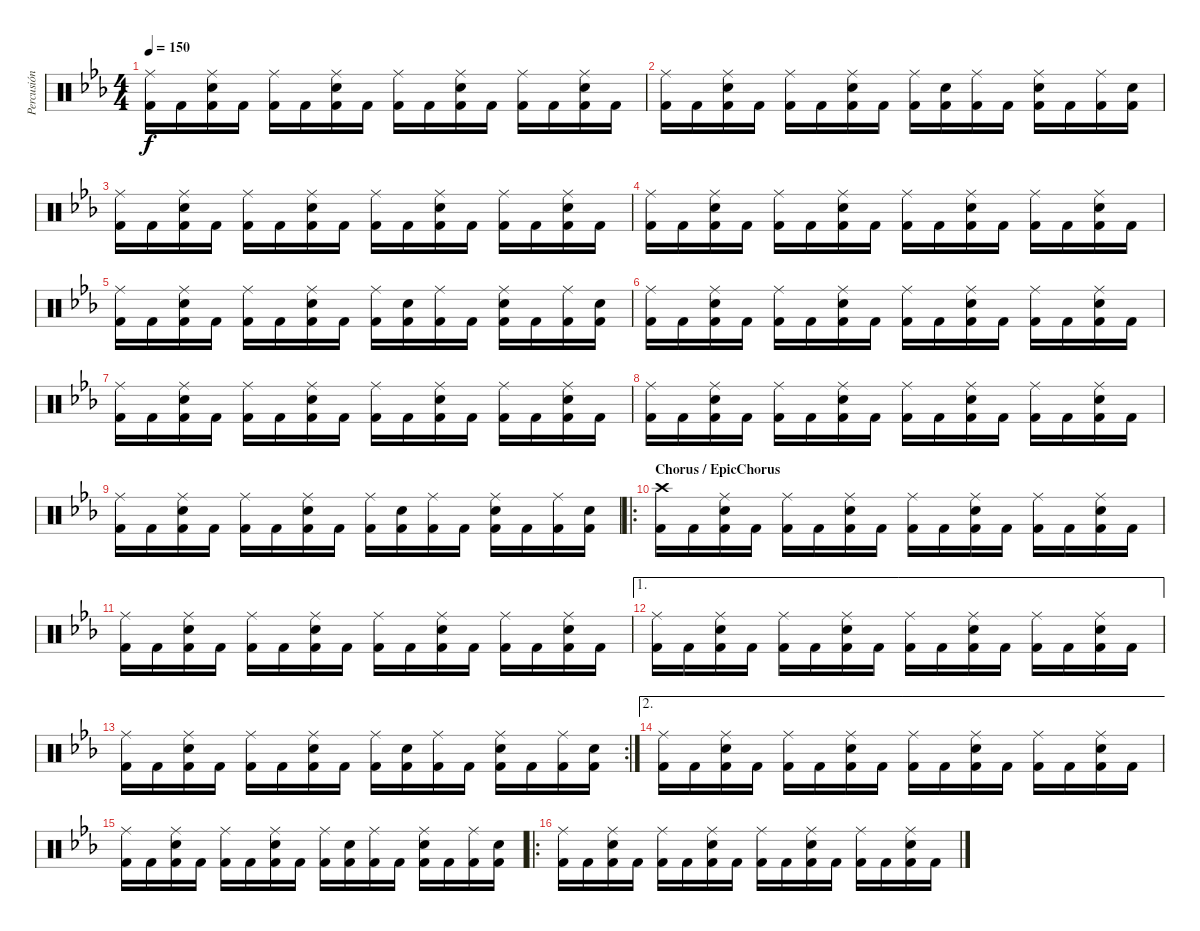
\track ("Percusión" "Percusión") {instrument percussion}
\staff {score}
\articulation defaults
\ts (4 4)
\tempo 150
\clef neutral
\ks cminor
("Ride (middle)" "Kick (hit) 2").16{dy f} "Kick (hit) 2".16 ("Ride (middle)" "Electric Snare (hit)" "Kick (hit) 2").16 "Kick (hit) 2".16 ("Ride (middle)" "Kick (hit) 2").16 "Kick (hit) 2".16 ("Ride (middle)" "Electric Snare (hit)" "Kick (hit) 2").16 "Kick (hit) 2".16 ("Ride (middle)" "Kick (hit) 2").16 "Kick (hit) 2".16 ("Ride (middle)" "Electric Snare (hit)" "Kick (hit) 2").16 "Kick (hit) 2".16 ("Ride (middle)" "Kick (hit) 2").16 "Kick (hit) 2".16 ("Ride (middle)" "Electric Snare (hit)" "Kick (hit) 2").16 "Kick (hit) 2".16 |
("Ride (middle)" "Kick (hit) 2").16 "Kick (hit) 2".16 ("Ride (middle)" "Electric Snare (hit)" "Kick (hit) 2").16 "Kick (hit) 2".16 ("Ride (middle)" "Kick (hit) 2").16 "Kick (hit) 2".16 ("Ride (middle)" "Electric Snare (hit)" "Kick (hit) 2").16 "Kick (hit) 2".16 ("Ride (middle)" "Kick (hit) 2").16 ("Electric Snare (hit)" "Kick (hit) 2").16 ("Ride (middle)" "Kick (hit) 2").16 "Kick (hit) 2".16 ("Ride (middle)" "Electric Snare (hit)" "Kick (hit) 2").16 "Kick (hit) 2".16 ("Ride (middle)" "Kick (hit) 2").16 ("Electric Snare (hit)" "Kick (hit) 2").16 |
("Ride (middle)" "Kick (hit) 2").16 "Kick (hit) 2".16 ("Ride (middle)" "Electric Snare (hit)" "Kick (hit) 2").16 "Kick (hit) 2".16 ("Ride (middle)" "Kick (hit) 2").16 "Kick (hit) 2".16 ("Ride (middle)" "Electric Snare (hit)" "Kick (hit) 2").16 "Kick (hit) 2".16 ("Ride (middle)" "Kick (hit) 2").16 "Kick (hit) 2".16 ("Ride (middle)" "Electric Snare (hit)" "Kick (hit) 2").16 "Kick (hit) 2".16 ("Ride (middle)" "Kick (hit) 2").16 "Kick (hit) 2".16 ("Ride (middle)" "Electric Snare (hit)" "Kick (hit) 2").16 "Kick (hit) 2".16 |
("Ride (middle)" "Kick (hit) 2").16 "Kick (hit) 2".16 ("Ride (middle)" "Electric Snare (hit)" "Kick (hit) 2").16 "Kick (hit) 2".16 ("Ride (middle)" "Kick (hit) 2").16 "Kick (hit) 2".16 ("Ride (middle)" "Electric Snare (hit)" "Kick (hit) 2").16 "Kick (hit) 2".16 ("Ride (middle)" "Kick (hit) 2").16 "Kick (hit) 2".16 ("Ride (middle)" "Electric Snare (hit)" "Kick (hit) 2").16 "Kick (hit) 2".16 ("Ride (middle)" "Kick (hit) 2").16 "Kick (hit) 2".16 ("Ride (middle)" "Electric Snare (hit)" "Kick (hit) 2").16 "Kick (hit) 2".16 |
("Ride (middle)" "Kick (hit) 2").16 "Kick (hit) 2".16 ("Ride (middle)" "Electric Snare (hit)" "Kick (hit) 2").16 "Kick (hit) 2".16 ("Ride (middle)" "Kick (hit) 2").16 "Kick (hit) 2".16 ("Ride (middle)" "Electric Snare (hit)" "Kick (hit) 2").16 "Kick (hit) 2".16 ("Ride (middle)" "Kick (hit) 2").16 ("Electric Snare (hit)" "Kick (hit) 2").16 ("Ride (middle)" "Kick (hit) 2").16 "Kick (hit) 2".16 ("Ride (middle)" "Electric Snare (hit)" "Kick (hit) 2").16 "Kick (hit) 2".16 ("Ride (middle)" "Kick (hit) 2").16 ("Electric Snare (hit)" "Kick (hit) 2").16 |
("Ride (middle)" "Kick (hit) 2").16 "Kick (hit) 2".16 ("Ride (middle)" "Electric Snare (hit)" "Kick (hit) 2").16 "Kick (hit) 2".16 ("Ride (middle)" "Kick (hit) 2").16 "Kick (hit) 2".16 ("Ride (middle)" "Electric Snare (hit)" "Kick (hit) 2").16 "Kick (hit) 2".16 ("Ride (middle)" "Kick (hit) 2").16 "Kick (hit) 2".16 ("Ride (middle)" "Electric Snare (hit)" "Kick (hit) 2").16 "Kick (hit) 2".16 ("Ride (middle)" "Kick (hit) 2").16 "Kick (hit) 2".16 ("Ride (middle)" "Electric Snare (hit)" "Kick (hit) 2").16 "Kick (hit) 2".16 |
("Ride (middle)" "Kick (hit) 2").16 "Kick (hit) 2".16 ("Ride (middle)" "Electric Snare (hit)" "Kick (hit) 2").16 "Kick (hit) 2".16 ("Ride (middle)" "Kick (hit) 2").16 "Kick (hit) 2".16 ("Ride (middle)" "Electric Snare (hit)" "Kick (hit) 2").16 "Kick (hit) 2".16 ("Ride (middle)" "Kick (hit) 2").16 "Kick (hit) 2".16 ("Ride (middle)" "Electric Snare (hit)" "Kick (hit) 2").16 "Kick (hit) 2".16 ("Ride (middle)" "Kick (hit) 2").16 "Kick (hit) 2".16 ("Ride (middle)" "Electric Snare (hit)" "Kick (hit) 2").16 "Kick (hit) 2".16 |
("Ride (middle)" "Kick (hit) 2").16 "Kick (hit) 2".16 ("Ride (middle)" "Electric Snare (hit)" "Kick (hit) 2").16 "Kick (hit) 2".16 ("Ride (middle)" "Kick (hit) 2").16 "Kick (hit) 2".16 ("Ride (middle)" "Electric Snare (hit)" "Kick (hit) 2").16 "Kick (hit) 2".16 ("Ride (middle)" "Kick (hit) 2").16 "Kick (hit) 2".16 ("Ride (middle)" "Electric Snare (hit)" "Kick (hit) 2").16 "Kick (hit) 2".16 ("Ride (middle)" "Kick (hit) 2").16 "Kick (hit) 2".16 ("Ride (middle)" "Electric Snare (hit)" "Kick (hit) 2").16 "Kick (hit) 2".16 |
("Ride (middle)" "Kick (hit) 2").16 "Kick (hit) 2".16 ("Ride (middle)" "Electric Snare (hit)" "Kick (hit) 2").16 "Kick (hit) 2".16 ("Ride (middle)" "Kick (hit) 2").16 "Kick (hit) 2".16 ("Ride (middle)" "Electric Snare (hit)" "Kick (hit) 2").16 "Kick (hit) 2".16 ("Ride (middle)" "Kick (hit) 2").16 ("Electric Snare (hit)" "Kick (hit) 2").16 ("Ride (middle)" "Kick (hit) 2").16 "Kick (hit) 2".16 ("Ride (middle)" "Electric Snare (hit)" "Kick (hit) 2").16 "Kick (hit) 2".16 ("Ride (middle)" "Kick (hit) 2").16 ("Electric Snare (hit)" "Kick (hit) 2").16 |
\ro
\section ("" "Chorus / EpicChorus")
("Crash high (hit)" "Kick (hit) 2").16 "Kick (hit) 2".16 ("Ride (middle)" "Electric Snare (hit)" "Kick (hit) 2").16 "Kick (hit) 2".16 ("Ride (middle)" "Kick (hit) 2").16 "Kick (hit) 2".16 ("Ride (middle)" "Electric Snare (hit)" "Kick (hit) 2").16 "Kick (hit) 2".16 ("Ride (middle)" "Kick (hit) 2").16 "Kick (hit) 2".16 ("Ride (middle)" "Electric Snare (hit)" "Kick (hit) 2").16 "Kick (hit) 2".16 ("Ride (middle)" "Kick (hit) 2").16 "Kick (hit) 2".16 ("Ride (middle)" "Electric Snare (hit)" "Kick (hit) 2").16 "Kick (hit) 2".16 |
("Ride (middle)" "Kick (hit) 2").16 "Kick (hit) 2".16 ("Ride (middle)" "Electric Snare (hit)" "Kick (hit) 2").16 "Kick (hit) 2".16 ("Ride (middle)" "Kick (hit) 2").16 "Kick (hit) 2".16 ("Ride (middle)" "Electric Snare (hit)" "Kick (hit) 2").16 "Kick (hit) 2".16 ("Ride (middle)" "Kick (hit) 2").16 "Kick (hit) 2".16 ("Ride (middle)" "Electric Snare (hit)" "Kick (hit) 2").16 "Kick (hit) 2".16 ("Ride (middle)" "Kick (hit) 2").16 "Kick (hit) 2".16 ("Ride (middle)" "Electric Snare (hit)" "Kick (hit) 2").16 "Kick (hit) 2".16 |
\ae 1
("Ride (middle)" "Kick (hit) 2").16 "Kick (hit) 2".16 ("Ride (middle)" "Electric Snare (hit)" "Kick (hit) 2").16 "Kick (hit) 2".16 ("Ride (middle)" "Kick (hit) 2").16 "Kick (hit) 2".16 ("Ride (middle)" "Electric Snare (hit)" "Kick (hit) 2").16 "Kick (hit) 2".16 ("Ride (middle)" "Kick (hit) 2").16 "Kick (hit) 2".16 ("Ride (middle)" "Electric Snare (hit)" "Kick (hit) 2").16 "Kick (hit) 2".16 ("Ride (middle)" "Kick (hit) 2").16 "Kick (hit) 2".16 ("Ride (middle)" "Electric Snare (hit)" "Kick (hit) 2").16 "Kick (hit) 2".16 |
\rc 2
("Ride (middle)" "Kick (hit) 2").16 "Kick (hit) 2".16 ("Ride (middle)" "Electric Snare (hit)" "Kick (hit) 2").16 "Kick (hit) 2".16 ("Ride (middle)" "Kick (hit) 2").16 "Kick (hit) 2".16 ("Ride (middle)" "Electric Snare (hit)" "Kick (hit) 2").16 "Kick (hit) 2".16 ("Ride (middle)" "Kick (hit) 2").16 ("Electric Snare (hit)" "Kick (hit) 2").16 ("Ride (middle)" "Kick (hit) 2").16 "Kick (hit) 2".16 ("Ride (middle)" "Electric Snare (hit)" "Kick (hit) 2").16 "Kick (hit) 2".16 ("Ride (middle)" "Kick (hit) 2").16 ("Electric Snare (hit)" "Kick (hit) 2").16 |
\ae 2
("Ride (middle)" "Kick (hit) 2").16 "Kick (hit) 2".16 ("Ride (middle)" "Electric Snare (hit)" "Kick (hit) 2").16 "Kick (hit) 2".16 ("Ride (middle)" "Kick (hit) 2").16 "Kick (hit) 2".16 ("Ride (middle)" "Electric Snare (hit)" "Kick (hit) 2").16 "Kick (hit) 2".16 ("Ride (middle)" "Kick (hit) 2").16 "Kick (hit) 2".16 ("Ride (middle)" "Electric Snare (hit)" "Kick (hit) 2").16 "Kick (hit) 2".16 ("Ride (middle)" "Kick (hit) 2").16 "Kick (hit) 2".16 ("Ride (middle)" "Electric Snare (hit)" "Kick (hit) 2").16 "Kick (hit) 2".16 |
("Ride (middle)" "Kick (hit) 2").16 "Kick (hit) 2".16 ("Ride (middle)" "Electric Snare (hit)" "Kick (hit) 2").16 "Kick (hit) 2".16 ("Ride (middle)" "Kick (hit) 2").16 "Kick (hit) 2".16 ("Ride (middle)" "Electric Snare (hit)" "Kick (hit) 2").16 "Kick (hit) 2".16 ("Ride (middle)" "Kick (hit) 2").16 ("Electric Snare (hit)" "Kick (hit) 2").16 ("Ride (middle)" "Kick (hit) 2").16 "Kick (hit) 2".16 ("Ride (middle)" "Electric Snare (hit)" "Kick (hit) 2").16 "Kick (hit) 2".16 ("Ride (middle)" "Kick (hit) 2").16 ("Electric Snare (hit)" "Kick (hit) 2").16 |
\ro
("Ride (middle)" "Kick (hit) 2").16 "Kick (hit) 2".16 ("Ride (middle)" "Electric Snare (hit)" "Kick (hit) 2").16 "Kick (hit) 2".16 ("Ride (middle)" "Kick (hit) 2").16 "Kick (hit) 2".16 ("Ride (middle)" "Electric Snare (hit)" "Kick (hit) 2").16 "Kick (hit) 2".16 ("Ride (middle)" "Kick (hit) 2").16 "Kick (hit) 2".16 ("Ride (middle)" "Electric Snare (hit)" "Kick (hit) 2").16 "Kick (hit) 2".16 ("Ride (middle)" "Kick (hit) 2").16 "Kick (hit) 2".16 ("Ride (middle)" "Electric Snare (hit)" "Kick (hit) 2").16 "Kick (hit) 2".16
